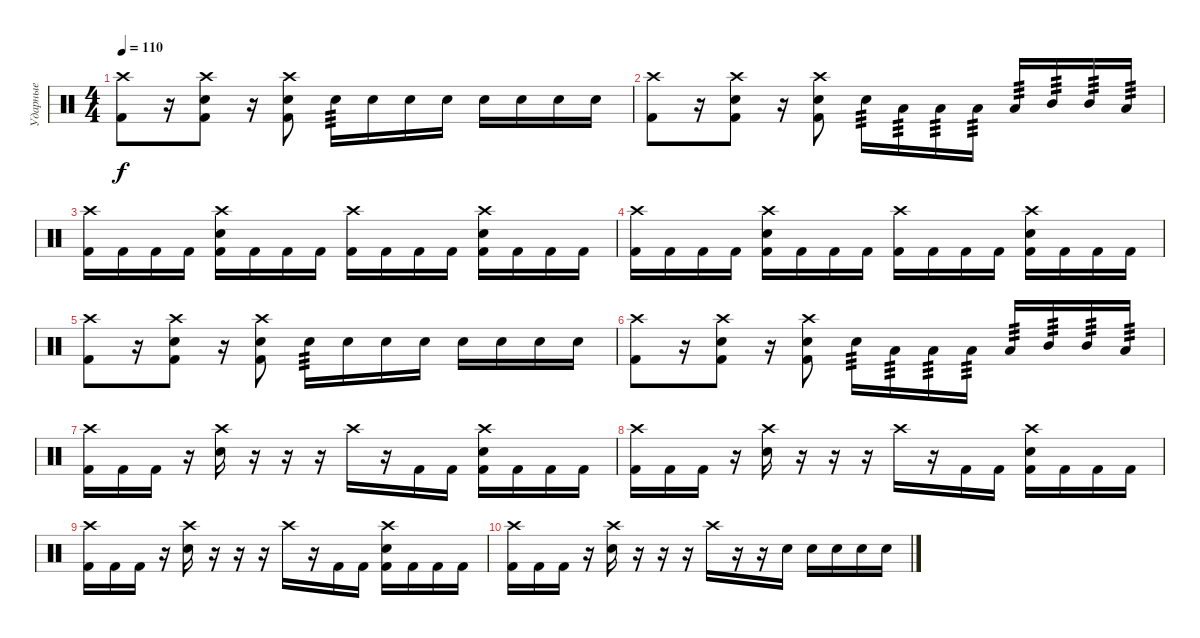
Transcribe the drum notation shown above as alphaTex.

\track ("Ударные" "Ударные") {instrument percussion}
\staff {score}
\articulation defaults
\ts (4 4)
\tempo 110
\clef neutral
\ks c
("Crash high (hit)" "Kick (hit) 2").8{dy f} r.16 ("Crash high (hit)" "Snare (hit) 2" "Kick (hit) 2").8 r.16 ("Crash high (hit)" "Snare (hit) 2" "Kick (hit) 2").8 "Snare (hit) 2".16{tp 3} "Snare (hit) 2".16 "Snare (hit) 2".16 "Snare (hit) 2".16 "Snare (hit) 2".16 "Snare (hit) 2".16 "Snare (hit) 2".16 "Snare (hit) 2".16 |
("Crash high (hit)" "Kick (hit) 2").8 r.16 ("Crash high (hit)" "Snare (hit) 2" "Kick (hit) 2").8 r.16 ("Crash high (hit)" "Snare (hit) 2" "Kick (hit) 2").8 "Snare (hit) 2".16{tp 3} "Low Tom (hit)".16{tp 3} "Low Tom (hit)".16{tp 3} "Low Floor Tom (hit)".16{tp 3} "Low Floor Tom (hit)".16{tp 3} "Mid Tom (hit)".16{tp 3} "Mid Tom (hit)".16{tp 3} "Low Floor Tom (hit)".16{tp 3} |
("Crash high (hit)" "Kick (hit) 2").16 "Kick (hit) 2".16 "Kick (hit) 2".16 "Kick (hit) 2".16 ("Crash high (hit)" "Snare (hit) 2" "Kick (hit) 2").16 "Kick (hit) 2".16 "Kick (hit) 2".16 "Kick (hit) 2".16 ("Crash high (hit)" "Kick (hit) 2").16 "Kick (hit) 2".16 "Kick (hit) 2".16 "Kick (hit) 2".16 ("Crash high (hit)" "Snare (hit) 2" "Kick (hit) 2").16 "Kick (hit) 2".16 "Kick (hit) 2".16 "Kick (hit) 2".16 |
("Crash high (hit)" "Kick (hit) 2").16 "Kick (hit) 2".16 "Kick (hit) 2".16 "Kick (hit) 2".16 ("Crash high (hit)" "Snare (hit) 2" "Kick (hit) 2").16 "Kick (hit) 2".16 "Kick (hit) 2".16 "Kick (hit) 2".16 ("Crash high (hit)" "Kick (hit) 2").16 "Kick (hit) 2".16 "Kick (hit) 2".16 "Kick (hit) 2".16 ("Crash high (hit)" "Snare (hit) 2" "Kick (hit) 2").16 "Kick (hit) 2".16 "Kick (hit) 2".16 "Kick (hit) 2".16 |
("Crash high (hit)" "Kick (hit) 2").8 r.16 ("Crash high (hit)" "Snare (hit) 2" "Kick (hit) 2").8 r.16 ("Crash high (hit)" "Snare (hit) 2" "Kick (hit) 2").8 "Snare (hit) 2".16{tp 3} "Snare (hit) 2".16 "Snare (hit) 2".16 "Snare (hit) 2".16 "Snare (hit) 2".16 "Snare (hit) 2".16 "Snare (hit) 2".16 "Snare (hit) 2".16 |
("Crash high (hit)" "Kick (hit) 2").8 r.16 ("Crash high (hit)" "Snare (hit) 2" "Kick (hit) 2").8 r.16 ("Crash high (hit)" "Snare (hit) 2" "Kick (hit) 2").8 "Snare (hit) 2".16{tp 3} "Low Tom (hit)".16{tp 3} "Low Tom (hit)".16{tp 3} "Low Floor Tom (hit)".16{tp 3} "Low Floor Tom (hit)".16{tp 3} "Mid Tom (hit)".16{tp 3} "Mid Tom (hit)".16{tp 3} "Low Floor Tom (hit)".16{tp 3} |
("Crash high (hit)" "Kick (hit) 2").16 "Kick (hit) 2".16 "Kick (hit) 2".16 r.16 ("Crash high (hit)" "Snare (hit) 2").16 r.16 r.16 r.16 "Crash high (hit)".16 r.16 "Kick (hit) 2".16 "Kick (hit) 2".16 ("Crash high (hit)" "Snare (hit) 2" "Kick (hit) 2").16 "Kick (hit) 2".16 "Kick (hit) 2".16 "Kick (hit) 2".16 |
("Crash high (hit)" "Kick (hit) 2").16 "Kick (hit) 2".16 "Kick (hit) 2".16 r.16 ("Crash high (hit)" "Snare (hit) 2").16 r.16 r.16 r.16 "Crash high (hit)".16 r.16 "Kick (hit) 2".16 "Kick (hit) 2".16 ("Crash high (hit)" "Snare (hit) 2" "Kick (hit) 2").16 "Kick (hit) 2".16 "Kick (hit) 2".16 "Kick (hit) 2".16 |
("Crash high (hit)" "Kick (hit) 2").16 "Kick (hit) 2".16 "Kick (hit) 2".16 r.16 ("Crash high (hit)" "Snare (hit) 2").16 r.16 r.16 r.16 "Crash high (hit)".16 r.16 "Kick (hit) 2".16 "Kick (hit) 2".16 ("Crash high (hit)" "Snare (hit) 2" "Kick (hit) 2").16 "Kick (hit) 2".16 "Kick (hit) 2".16 "Kick (hit) 2".16 |
("Crash high (hit)" "Kick (hit) 2").16 "Kick (hit) 2".16 "Kick (hit) 2".16 r.16 ("Crash high (hit)" "Snare (hit) 2").16 r.16 r.16 r.16 "Crash high (hit)".16 r.16 r.16 "Snare (hit) 2".16 "Snare (hit) 2".16 "Snare (hit) 2".16 "Snare (hit) 2".16 "Snare (hit) 2".16
